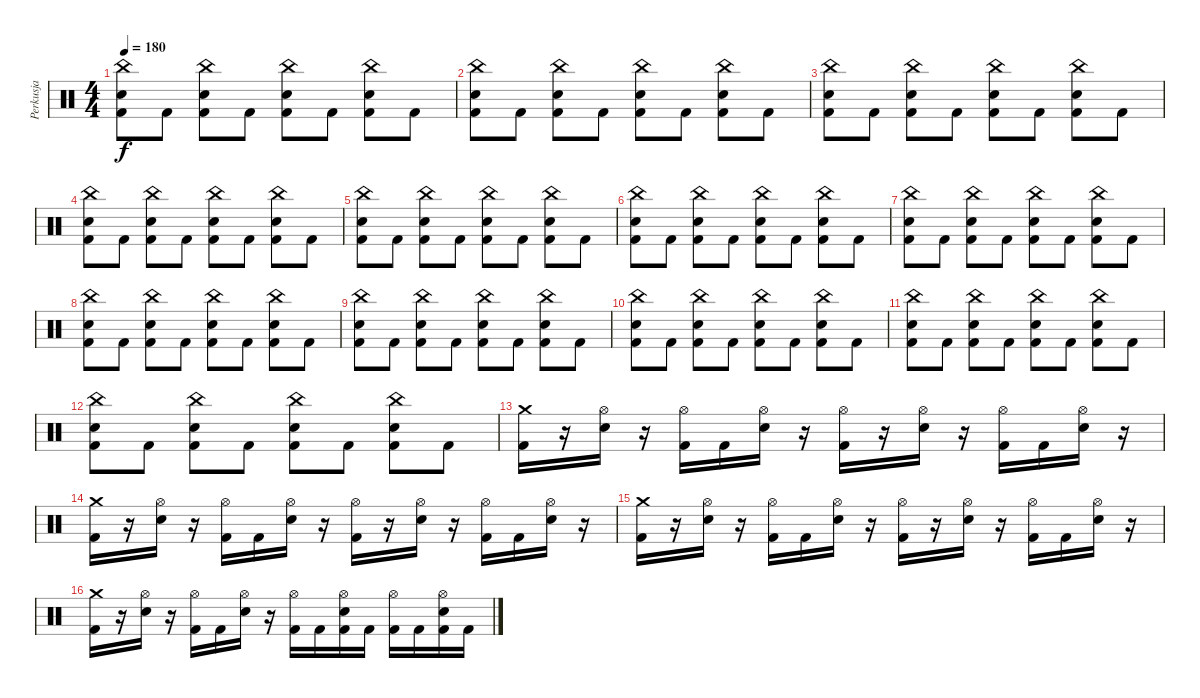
\track ("Perkusja" "Perkusja") {instrument percussion}
\staff {score}
\articulation defaults
\ts (4 4)
\tempo 180
\clef neutral
\ks c
("China (hit)" "Snare (hit) 2" "Kick (hit) 2").8{dy f} "Kick (hit) 2".8 ("China (hit)" "Snare (hit) 2" "Kick (hit) 2").8 "Kick (hit) 2".8 ("China (hit)" "Snare (hit) 2" "Kick (hit) 2").8 "Kick (hit) 2".8 ("China (hit)" "Snare (hit) 2" "Kick (hit) 2").8 "Kick (hit) 2".8 |
("China (hit)" "Snare (hit) 2" "Kick (hit) 2").8 "Kick (hit) 2".8 ("China (hit)" "Snare (hit) 2" "Kick (hit) 2").8 "Kick (hit) 2".8 ("China (hit)" "Snare (hit) 2" "Kick (hit) 2").8 "Kick (hit) 2".8 ("China (hit)" "Snare (hit) 2" "Kick (hit) 2").8 "Kick (hit) 2".8 |
("China (hit)" "Snare (hit) 2" "Kick (hit) 2").8 "Kick (hit) 2".8 ("China (hit)" "Snare (hit) 2" "Kick (hit) 2").8 "Kick (hit) 2".8 ("China (hit)" "Snare (hit) 2" "Kick (hit) 2").8 "Kick (hit) 2".8 ("China (hit)" "Snare (hit) 2" "Kick (hit) 2").8 "Kick (hit) 2".8 |
("China (hit)" "Snare (hit) 2" "Kick (hit) 2").8 "Kick (hit) 2".8 ("China (hit)" "Snare (hit) 2" "Kick (hit) 2").8 "Kick (hit) 2".8 ("China (hit)" "Snare (hit) 2" "Kick (hit) 2").8 "Kick (hit) 2".8 ("China (hit)" "Snare (hit) 2" "Kick (hit) 2").8 "Kick (hit) 2".8 |
("China (hit)" "Snare (hit) 2" "Kick (hit) 2").8 "Kick (hit) 2".8 ("China (hit)" "Snare (hit) 2" "Kick (hit) 2").8 "Kick (hit) 2".8 ("China (hit)" "Snare (hit) 2" "Kick (hit) 2").8 "Kick (hit) 2".8 ("China (hit)" "Snare (hit) 2" "Kick (hit) 2").8 "Kick (hit) 2".8 |
("China (hit)" "Snare (hit) 2" "Kick (hit) 2").8 "Kick (hit) 2".8 ("China (hit)" "Snare (hit) 2" "Kick (hit) 2").8 "Kick (hit) 2".8 ("China (hit)" "Snare (hit) 2" "Kick (hit) 2").8 "Kick (hit) 2".8 ("China (hit)" "Snare (hit) 2" "Kick (hit) 2").8 "Kick (hit) 2".8 |
("China (hit)" "Snare (hit) 2" "Kick (hit) 2").8 "Kick (hit) 2".8 ("China (hit)" "Snare (hit) 2" "Kick (hit) 2").8 "Kick (hit) 2".8 ("China (hit)" "Snare (hit) 2" "Kick (hit) 2").8 "Kick (hit) 2".8 ("China (hit)" "Snare (hit) 2" "Kick (hit) 2").8 "Kick (hit) 2".8 |
("China (hit)" "Snare (hit) 2" "Kick (hit) 2").8 "Kick (hit) 2".8 ("China (hit)" "Snare (hit) 2" "Kick (hit) 2").8 "Kick (hit) 2".8 ("China (hit)" "Snare (hit) 2" "Kick (hit) 2").8 "Kick (hit) 2".8 ("China (hit)" "Snare (hit) 2" "Kick (hit) 2").8 "Kick (hit) 2".8 |
("China (hit)" "Snare (hit) 2" "Kick (hit) 2").8 "Kick (hit) 2".8 ("China (hit)" "Snare (hit) 2" "Kick (hit) 2").8 "Kick (hit) 2".8 ("China (hit)" "Snare (hit) 2" "Kick (hit) 2").8 "Kick (hit) 2".8 ("China (hit)" "Snare (hit) 2" "Kick (hit) 2").8 "Kick (hit) 2".8 |
("China (hit)" "Snare (hit) 2" "Kick (hit) 2").8 "Kick (hit) 2".8 ("China (hit)" "Snare (hit) 2" "Kick (hit) 2").8 "Kick (hit) 2".8 ("China (hit)" "Snare (hit) 2" "Kick (hit) 2").8 "Kick (hit) 2".8 ("China (hit)" "Snare (hit) 2" "Kick (hit) 2").8 "Kick (hit) 2".8 |
("China (hit)" "Snare (hit) 2" "Kick (hit) 2").8 "Kick (hit) 2".8 ("China (hit)" "Snare (hit) 2" "Kick (hit) 2").8 "Kick (hit) 2".8 ("China (hit)" "Snare (hit) 2" "Kick (hit) 2").8 "Kick (hit) 2".8 ("China (hit)" "Snare (hit) 2" "Kick (hit) 2").8 "Kick (hit) 2".8 |
("China (hit)" "Snare (hit) 2" "Kick (hit) 2").8 "Kick (hit) 2".8 ("China (hit)" "Snare (hit) 2" "Kick (hit) 2").8 "Kick (hit) 2".8 ("China (hit)" "Snare (hit) 2" "Kick (hit) 2").8 "Kick (hit) 2".8 ("China (hit)" "Snare (hit) 2" "Kick (hit) 2").8 "Kick (hit) 2".8 |
("Crash medium (hit)" "Kick (hit) 2").16 r.16 ("Hi-Hat (open)" "Snare (hit) 2").16 r.16 ("Hi-Hat (open)" "Kick (hit) 2").16 "Kick (hit) 2".16 ("Hi-Hat (open)" "Snare (hit) 2").16 r.16 ("Hi-Hat (open)" "Kick (hit) 2").16 r.16 ("Hi-Hat (open)" "Snare (hit) 2").16 r.16 ("Hi-Hat (open)" "Kick (hit) 2").16 "Kick (hit) 2".16 ("Hi-Hat (open)" "Snare (hit) 2").16 r.16 |
("Crash medium (hit)" "Kick (hit) 2").16 r.16 ("Hi-Hat (open)" "Snare (hit) 2").16 r.16 ("Hi-Hat (open)" "Kick (hit) 2").16 "Kick (hit) 2".16 ("Hi-Hat (open)" "Snare (hit) 2").16 r.16 ("Hi-Hat (open)" "Kick (hit) 2").16 r.16 ("Hi-Hat (open)" "Snare (hit) 2").16 r.16 ("Hi-Hat (open)" "Kick (hit) 2").16 "Kick (hit) 2".16 ("Hi-Hat (open)" "Snare (hit) 2").16 r.16 |
("Crash medium (hit)" "Kick (hit) 2").16 r.16 ("Hi-Hat (open)" "Snare (hit) 2").16 r.16 ("Hi-Hat (open)" "Kick (hit) 2").16 "Kick (hit) 2".16 ("Hi-Hat (open)" "Snare (hit) 2").16 r.16 ("Hi-Hat (open)" "Kick (hit) 2").16 r.16 ("Hi-Hat (open)" "Snare (hit) 2").16 r.16 ("Hi-Hat (open)" "Kick (hit) 2").16 "Kick (hit) 2".16 ("Hi-Hat (open)" "Snare (hit) 2").16 r.16 |
("Crash medium (hit)" "Kick (hit) 2").16 r.16 ("Hi-Hat (open)" "Snare (hit) 2").16 r.16 ("Hi-Hat (open)" "Kick (hit) 2").16 "Kick (hit) 2".16 ("Hi-Hat (open)" "Snare (hit) 2").16 r.16 ("Hi-Hat (open)" "Kick (hit) 2").16 "Kick (hit) 2".16 ("Hi-Hat (open)" "Snare (hit) 2" "Kick (hit) 2").16 "Kick (hit) 2".16 ("Hi-Hat (open)" "Kick (hit) 2").16 "Kick (hit) 2".16 ("Hi-Hat (open)" "Snare (hit) 2" "Kick (hit) 2").16 "Kick (hit) 2".16
